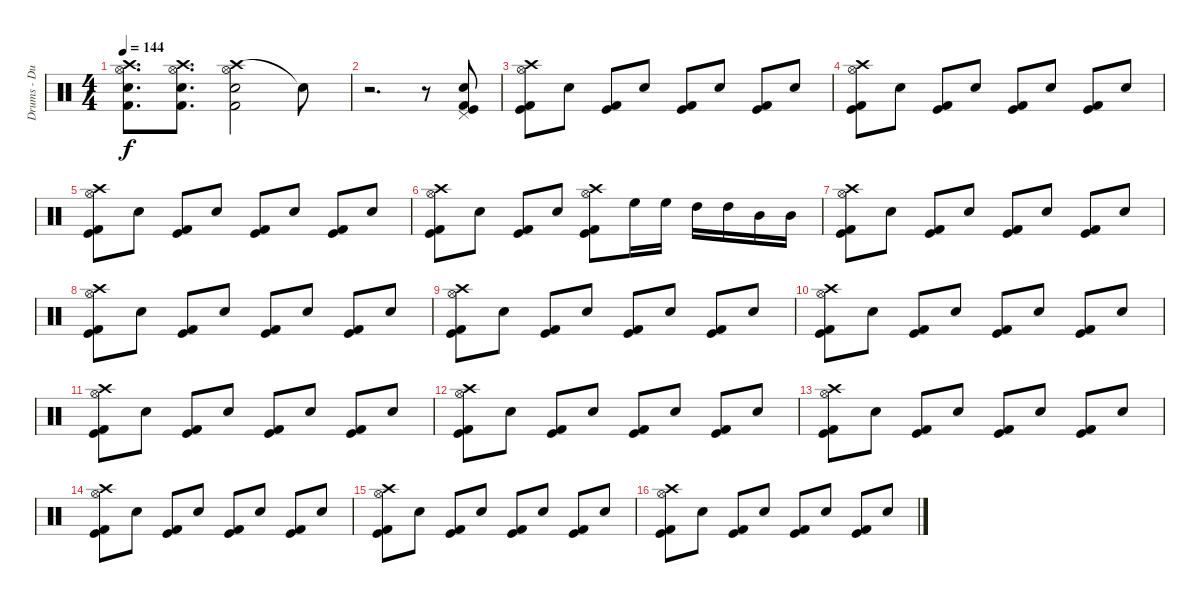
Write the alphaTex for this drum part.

\track ("Drums - Duncan Scott" "Drums - Du") {instrument percussion}
\staff {score}
\articulation defaults
\ts (4 4)
\tempo 144
\clef neutral
\ks c
("Crash high (hit)" "Hi-Hat (open)" "Electric Snare (hit)" "Kick (hit) 2").8{d dy f} ("Crash high (hit)" "Hi-Hat (open)" "Electric Snare (hit)" "Kick (hit) 2").8{d} ("Crash high (hit)" "Hi-Hat (open)" "Electric Snare (hit)" "Kick (hit) 2").2 "Snare (hit)"{t}.8 |
r.2{d} r.8 ("Electric Snare (hit)" "Pedal Hi-Hat (hit)" "Kick (hit)" "Kick (hit) 2").8 |
("Crash high (hit)" "Hi-Hat (open)" "Kick (hit)" "Kick (hit) 2").8 "Electric Snare (hit)".8 ("Kick (hit)" "Kick (hit) 2").8 "Electric Snare (hit)".8 ("Kick (hit)" "Kick (hit) 2").8 "Electric Snare (hit)".8 ("Kick (hit)" "Kick (hit) 2").8 "Electric Snare (hit)".8 |
("Crash high (hit)" "Hi-Hat (open)" "Kick (hit)" "Kick (hit) 2").8 "Electric Snare (hit)".8 ("Kick (hit)" "Kick (hit) 2").8 "Electric Snare (hit)".8 ("Kick (hit)" "Kick (hit) 2").8 "Electric Snare (hit)".8 ("Kick (hit)" "Kick (hit) 2").8 "Electric Snare (hit)".8 |
("Crash high (hit)" "Hi-Hat (open)" "Kick (hit)" "Kick (hit) 2").8 "Electric Snare (hit)".8 ("Kick (hit)" "Kick (hit) 2").8 "Electric Snare (hit)".8 ("Kick (hit)" "Kick (hit) 2").8 "Electric Snare (hit)".8 ("Kick (hit)" "Kick (hit) 2").8 "Electric Snare (hit)".8 |
("Crash high (hit)" "Hi-Hat (open)" "Kick (hit)" "Kick (hit) 2").8 "Electric Snare (hit)".8 ("Kick (hit)" "Kick (hit) 2").8 "Electric Snare (hit)".8 ("Crash high (hit)" "Hi-Hat (open)" "Kick (hit)" "Kick (hit) 2").8 "High Floor Tom (hit)".16 "High Floor Tom (hit)".16 "High Tom (hit)".16 "High Tom (hit)".16 "Mid Tom (hit)".16 "Mid Tom (hit)".16 |
("Crash high (hit)" "Hi-Hat (open)" "Kick (hit)" "Kick (hit) 2").8 "Electric Snare (hit)".8 ("Kick (hit)" "Kick (hit) 2").8 "Electric Snare (hit)".8 ("Kick (hit)" "Kick (hit) 2").8 "Electric Snare (hit)".8 ("Kick (hit)" "Kick (hit) 2").8 "Electric Snare (hit)".8 |
("Crash high (hit)" "Hi-Hat (open)" "Kick (hit)" "Kick (hit) 2").8 "Electric Snare (hit)".8 ("Kick (hit)" "Kick (hit) 2").8 "Electric Snare (hit)".8 ("Kick (hit)" "Kick (hit) 2").8 "Electric Snare (hit)".8 ("Kick (hit)" "Kick (hit) 2").8 "Electric Snare (hit)".8 |
("Crash high (hit)" "Hi-Hat (open)" "Kick (hit)" "Kick (hit) 2").8 "Electric Snare (hit)".8 ("Kick (hit)" "Kick (hit) 2").8 "Electric Snare (hit)".8 ("Kick (hit)" "Kick (hit) 2").8 "Electric Snare (hit)".8 ("Kick (hit)" "Kick (hit) 2").8 "Electric Snare (hit)".8 |
("Crash high (hit)" "Hi-Hat (open)" "Kick (hit)" "Kick (hit) 2").8 "Electric Snare (hit)".8 ("Kick (hit)" "Kick (hit) 2").8 "Electric Snare (hit)".8 ("Kick (hit)" "Kick (hit) 2").8 "Electric Snare (hit)".8 ("Kick (hit)" "Kick (hit) 2").8 "Electric Snare (hit)".8 |
("Crash high (hit)" "Hi-Hat (open)" "Kick (hit)" "Kick (hit) 2").8 "Electric Snare (hit)".8 ("Kick (hit)" "Kick (hit) 2").8 "Electric Snare (hit)".8 ("Kick (hit)" "Kick (hit) 2").8 "Electric Snare (hit)".8 ("Kick (hit)" "Kick (hit) 2").8 "Electric Snare (hit)".8 |
("Crash high (hit)" "Hi-Hat (open)" "Kick (hit)" "Kick (hit) 2").8 "Electric Snare (hit)".8 ("Kick (hit)" "Kick (hit) 2").8 "Electric Snare (hit)".8 ("Kick (hit)" "Kick (hit) 2").8 "Electric Snare (hit)".8 ("Kick (hit)" "Kick (hit) 2").8 "Electric Snare (hit)".8 |
("Crash high (hit)" "Hi-Hat (open)" "Kick (hit)" "Kick (hit) 2").8 "Electric Snare (hit)".8 ("Kick (hit)" "Kick (hit) 2").8 "Electric Snare (hit)".8 ("Kick (hit)" "Kick (hit) 2").8 "Electric Snare (hit)".8 ("Kick (hit)" "Kick (hit) 2").8 "Electric Snare (hit)".8 |
("Crash high (hit)" "Hi-Hat (open)" "Kick (hit)" "Kick (hit) 2").8 "Electric Snare (hit)".8 ("Kick (hit)" "Kick (hit) 2").8 "Electric Snare (hit)".8 ("Kick (hit)" "Kick (hit) 2").8 "Electric Snare (hit)".8 ("Kick (hit)" "Kick (hit) 2").8 "Electric Snare (hit)".8 |
("Crash high (hit)" "Hi-Hat (open)" "Kick (hit)" "Kick (hit) 2").8 "Electric Snare (hit)".8 ("Kick (hit)" "Kick (hit) 2").8 "Electric Snare (hit)".8 ("Kick (hit)" "Kick (hit) 2").8 "Electric Snare (hit)".8 ("Kick (hit)" "Kick (hit) 2").8 "Electric Snare (hit)".8 |
("Crash high (hit)" "Hi-Hat (open)" "Kick (hit)" "Kick (hit) 2").8 "Electric Snare (hit)".8 ("Kick (hit)" "Kick (hit) 2").8 "Electric Snare (hit)".8 ("Kick (hit)" "Kick (hit) 2").8 "Electric Snare (hit)".8 ("Kick (hit)" "Kick (hit) 2").8 "Electric Snare (hit)".8
